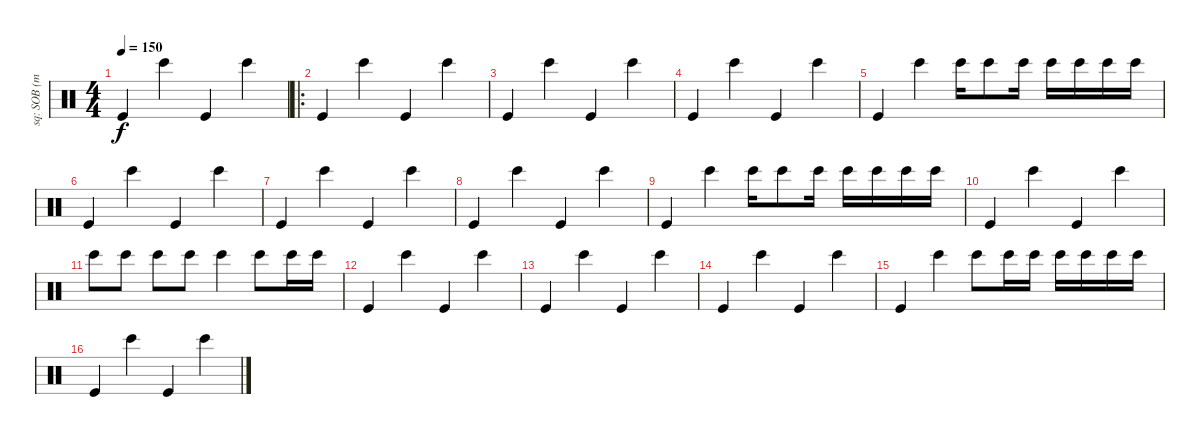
\track ("sq: SOB (metal_up_your_ass@2die4.com)" "sq: SOB (m") {instrument percussion}
\staff {score}
\articulation defaults
\ts (4 4)
\tempo 150
\clef neutral
\ks c "Kick (hit)".4{dy f} "Bongo High (hit)".4 "Kick (hit)".4 "Bongo High (hit)".4
|
\ro "Kick (hit)".4 "Bongo High (hit)".4 "Kick (hit)".4 "Bongo High (hit)".4
|
"Kick (hit)".4 "Bongo High (hit)".4 "Kick (hit)".4 "Bongo High (hit)".4 |
"Kick (hit)".4 "Bongo High (hit)".4 "Kick (hit)".4 "Bongo High (hit)".4 |
"Kick (hit)".4 "Bongo High (hit)".4 "Bongo High (hit)".16 "Bongo High (hit)".8 "Bongo High (hit)".16 "Bongo High (hit)".16 "Bongo High (hit)".16 "Bongo High (hit)".16 "Bongo High (hit)".16 |
"Kick (hit)".4 "Bongo High (hit)".4 "Kick (hit)".4 "Bongo High (hit)".4 |
"Kick (hit)".4 "Bongo High (hit)".4 "Kick (hit)".4 "Bongo High (hit)".4 |
"Kick (hit)".4 "Bongo High (hit)".4 "Kick (hit)".4 "Bongo High (hit)".4 |
"Kick (hit)".4 "Bongo High (hit)".4 "Bongo High (hit)".16 "Bongo High (hit)".8 "Bongo High (hit)".16 "Bongo High (hit)".16 "Bongo High (hit)".16 "Bongo High (hit)".16 "Bongo High (hit)".16 |
"Kick (hit)".4 "Bongo High (hit)".4 "Kick (hit)".4 "Bongo High (hit)".4 |
"Bongo High (hit)".8 "Bongo High (hit)".8 "Bongo High (hit)".8 "Bongo High (hit)".8 "Bongo High (hit)".4 "Bongo High (hit)".8 "Bongo High (hit)".16 "Bongo High (hit)".16 |
"Kick (hit)".4 "Bongo High (hit)".4 "Kick (hit)".4 "Bongo High (hit)".4 |
"Kick (hit)".4 "Bongo High (hit)".4 "Kick (hit)".4 "Bongo High (hit)".4 |
"Kick (hit)".4 "Bongo High (hit)".4 "Kick (hit)".4 "Bongo High (hit)".4 |
"Kick (hit)".4 "Bongo High (hit)".4 "Bongo High (hit)".8 "Bongo High (hit)".16 "Bongo High (hit)".16 "Bongo High (hit)".16 "Bongo High (hit)".16 "Bongo High (hit)".16 "Bongo High (hit)".16 |
"Kick (hit)".4 "Bongo High (hit)".4 "Kick (hit)".4 "Bongo High (hit)".4
